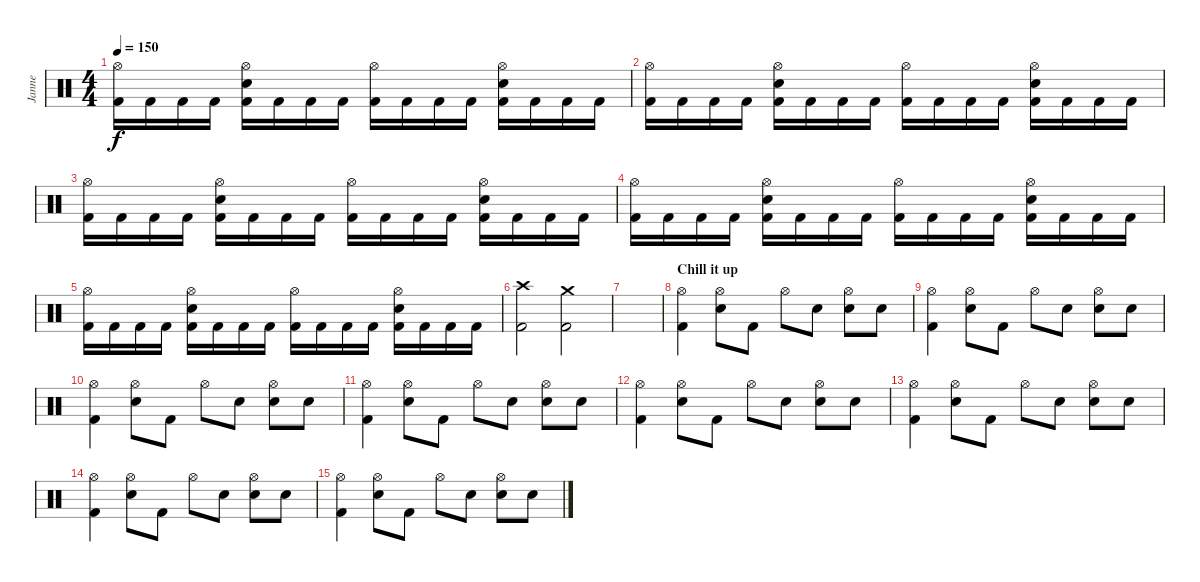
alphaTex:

\track ("Janne" "Janne") {instrument percussion}
\staff {score}
\articulation defaults
\ts (4 4)
\tempo 150
\clef neutral
\ks c
("Hi-Hat (open)" "Kick (hit) 2").16{dy f} "Kick (hit) 2".16 "Kick (hit) 2".16 "Kick (hit) 2".16 ("Hi-Hat (open)" "Electric Snare (hit)" "Kick (hit) 2").16 "Kick (hit) 2".16 "Kick (hit) 2".16 "Kick (hit) 2".16 ("Hi-Hat (open)" "Kick (hit) 2").16 "Kick (hit) 2".16 "Kick (hit) 2".16 "Kick (hit) 2".16 ("Hi-Hat (open)" "Electric Snare (hit)" "Kick (hit) 2").16 "Kick (hit) 2".16 "Kick (hit) 2".16 "Kick (hit) 2".16 |
("Hi-Hat (open)" "Kick (hit) 2").16 "Kick (hit) 2".16 "Kick (hit) 2".16 "Kick (hit) 2".16 ("Hi-Hat (open)" "Electric Snare (hit)" "Kick (hit) 2").16 "Kick (hit) 2".16 "Kick (hit) 2".16 "Kick (hit) 2".16 ("Hi-Hat (open)" "Kick (hit) 2").16 "Kick (hit) 2".16 "Kick (hit) 2".16 "Kick (hit) 2".16 ("Hi-Hat (open)" "Electric Snare (hit)" "Kick (hit) 2").16 "Kick (hit) 2".16 "Kick (hit) 2".16 "Kick (hit) 2".16 |
("Hi-Hat (open)" "Kick (hit) 2").16 "Kick (hit) 2".16 "Kick (hit) 2".16 "Kick (hit) 2".16 ("Hi-Hat (open)" "Electric Snare (hit)" "Kick (hit) 2").16 "Kick (hit) 2".16 "Kick (hit) 2".16 "Kick (hit) 2".16 ("Hi-Hat (open)" "Kick (hit) 2").16 "Kick (hit) 2".16 "Kick (hit) 2".16 "Kick (hit) 2".16 ("Hi-Hat (open)" "Electric Snare (hit)" "Kick (hit) 2").16 "Kick (hit) 2".16 "Kick (hit) 2".16 "Kick (hit) 2".16 |
("Hi-Hat (open)" "Kick (hit) 2").16 "Kick (hit) 2".16 "Kick (hit) 2".16 "Kick (hit) 2".16 ("Hi-Hat (open)" "Electric Snare (hit)" "Kick (hit) 2").16 "Kick (hit) 2".16 "Kick (hit) 2".16 "Kick (hit) 2".16 ("Hi-Hat (open)" "Kick (hit) 2").16 "Kick (hit) 2".16 "Kick (hit) 2".16 "Kick (hit) 2".16 ("Hi-Hat (open)" "Electric Snare (hit)" "Kick (hit) 2").16 "Kick (hit) 2".16 "Kick (hit) 2".16 "Kick (hit) 2".16 |
("Hi-Hat (open)" "Kick (hit) 2").16 "Kick (hit) 2".16 "Kick (hit) 2".16 "Kick (hit) 2".16 ("Hi-Hat (open)" "Electric Snare (hit)" "Kick (hit) 2").16 "Kick (hit) 2".16 "Kick (hit) 2".16 "Kick (hit) 2".16 ("Hi-Hat (open)" "Kick (hit) 2").16 "Kick (hit) 2".16 "Kick (hit) 2".16 "Kick (hit) 2".16 ("Hi-Hat (open)" "Electric Snare (hit)" "Kick (hit) 2").16 "Kick (hit) 2".16 "Kick (hit) 2".16 "Kick (hit) 2".16 |
("Crash high (hit)" "Kick (hit) 2").2 ("Crash medium (hit)" "Kick (hit) 2").2 |
|
\section ("" "Chill it up")
("Hi-Hat (open)" "Kick (hit) 2").4 ("Hi-Hat (open)" "Electric Snare (hit)").8 "Kick (hit) 2".8 "Hi-Hat (open)".8 "Electric Snare (hit)".8 ("Hi-Hat (open)" "Electric Snare (hit)").8 "Electric Snare (hit)".8 |
("Hi-Hat (open)" "Kick (hit) 2").4 ("Hi-Hat (open)" "Electric Snare (hit)").8 "Kick (hit) 2".8 "Hi-Hat (open)".8 "Electric Snare (hit)".8 ("Hi-Hat (open)" "Electric Snare (hit)").8 "Electric Snare (hit)".8 |
("Hi-Hat (open)" "Kick (hit) 2").4 ("Hi-Hat (open)" "Electric Snare (hit)").8 "Kick (hit) 2".8 "Hi-Hat (open)".8 "Electric Snare (hit)".8 ("Hi-Hat (open)" "Electric Snare (hit)").8 "Electric Snare (hit)".8 |
("Hi-Hat (open)" "Kick (hit) 2").4 ("Hi-Hat (open)" "Electric Snare (hit)").8 "Kick (hit) 2".8 "Hi-Hat (open)".8 "Electric Snare (hit)".8 ("Hi-Hat (open)" "Electric Snare (hit)").8 "Electric Snare (hit)".8 |
("Hi-Hat (open)" "Kick (hit) 2").4 ("Hi-Hat (open)" "Electric Snare (hit)").8 "Kick (hit) 2".8 "Hi-Hat (open)".8 "Electric Snare (hit)".8 ("Hi-Hat (open)" "Electric Snare (hit)").8 "Electric Snare (hit)".8 |
("Hi-Hat (open)" "Kick (hit) 2").4 ("Hi-Hat (open)" "Electric Snare (hit)").8 "Kick (hit) 2".8 "Hi-Hat (open)".8 "Electric Snare (hit)".8 ("Hi-Hat (open)" "Electric Snare (hit)").8 "Electric Snare (hit)".8 |
("Hi-Hat (open)" "Kick (hit) 2").4 ("Hi-Hat (open)" "Electric Snare (hit)").8 "Kick (hit) 2".8 "Hi-Hat (open)".8 "Electric Snare (hit)".8 ("Hi-Hat (open)" "Electric Snare (hit)").8 "Electric Snare (hit)".8 |
("Hi-Hat (open)" "Kick (hit) 2").4 ("Hi-Hat (open)" "Electric Snare (hit)").8 "Kick (hit) 2".8 "Hi-Hat (open)".8 "Electric Snare (hit)".8 ("Hi-Hat (open)" "Electric Snare (hit)").8 "Electric Snare (hit)".8
